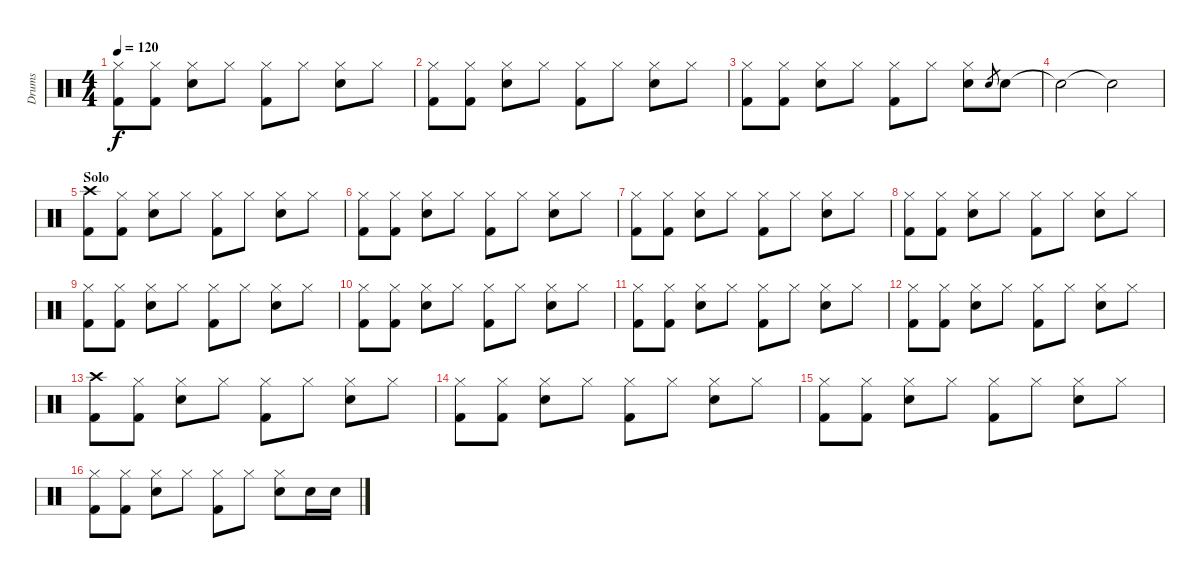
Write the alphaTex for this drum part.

\track ("Drums" "Drums") {instrument percussion}
\staff {score}
\articulation defaults
\ts (4 4)
\tempo 120
\clef neutral
\ks c
("Hi-Hat (closed)" "Kick (hit) 2").8{dy f} ("Hi-Hat (closed)" "Kick (hit) 2").8 ("Hi-Hat (closed)" "Electric Snare (hit)").8 "Hi-Hat (closed)".8 ("Hi-Hat (closed)" "Kick (hit) 2").8 "Hi-Hat (closed)".8 ("Hi-Hat (closed)" "Electric Snare (hit)").8 "Hi-Hat (closed)".8 |
("Hi-Hat (closed)" "Kick (hit) 2").8 ("Hi-Hat (closed)" "Kick (hit) 2").8 ("Hi-Hat (closed)" "Electric Snare (hit)").8 "Hi-Hat (closed)".8 ("Hi-Hat (closed)" "Kick (hit) 2").8 "Hi-Hat (closed)".8 ("Hi-Hat (closed)" "Electric Snare (hit)").8 "Hi-Hat (closed)".8 |
("Hi-Hat (closed)" "Kick (hit) 2").8 ("Hi-Hat (closed)" "Kick (hit) 2").8 ("Hi-Hat (closed)" "Electric Snare (hit)").8 "Hi-Hat (closed)".8 ("Hi-Hat (closed)" "Kick (hit) 2").8 "Hi-Hat (closed)".8 ("Hi-Hat (closed)" "Electric Snare (hit)").8 "Electric Snare (hit)".8{gr} "Electric Snare (hit)".8 |
"Electric Snare (hit)"{t}.2 "Snare (hit)"{t}.2 |
\section ("" "Solo")
("Crash high (hit)" "Kick (hit) 2").8 ("Hi-Hat (closed)" "Kick (hit) 2").8 ("Hi-Hat (closed)" "Electric Snare (hit)").8 "Hi-Hat (closed)".8 ("Hi-Hat (closed)" "Kick (hit) 2").8 "Hi-Hat (closed)".8 ("Hi-Hat (closed)" "Electric Snare (hit)").8 "Hi-Hat (closed)".8 |
("Hi-Hat (closed)" "Kick (hit) 2").8 ("Hi-Hat (closed)" "Kick (hit) 2").8 ("Hi-Hat (closed)" "Electric Snare (hit)").8 "Hi-Hat (closed)".8 ("Hi-Hat (closed)" "Kick (hit) 2").8 "Hi-Hat (closed)".8 ("Hi-Hat (closed)" "Electric Snare (hit)").8 "Hi-Hat (closed)".8 |
("Hi-Hat (closed)" "Kick (hit) 2").8 ("Hi-Hat (closed)" "Kick (hit) 2").8 ("Hi-Hat (closed)" "Electric Snare (hit)").8 "Hi-Hat (closed)".8 ("Hi-Hat (closed)" "Kick (hit) 2").8 "Hi-Hat (closed)".8 ("Hi-Hat (closed)" "Electric Snare (hit)").8 "Hi-Hat (closed)".8 |
("Hi-Hat (closed)" "Kick (hit) 2").8 ("Hi-Hat (closed)" "Kick (hit) 2").8 ("Hi-Hat (closed)" "Electric Snare (hit)").8 "Hi-Hat (closed)".8 ("Hi-Hat (closed)" "Kick (hit) 2").8 "Hi-Hat (closed)".8 ("Hi-Hat (closed)" "Electric Snare (hit)").8 "Hi-Hat (closed)".8 |
("Hi-Hat (closed)" "Kick (hit) 2").8 ("Hi-Hat (closed)" "Kick (hit) 2").8 ("Hi-Hat (closed)" "Electric Snare (hit)").8 "Hi-Hat (closed)".8 ("Hi-Hat (closed)" "Kick (hit) 2").8 "Hi-Hat (closed)".8 ("Hi-Hat (closed)" "Electric Snare (hit)").8 "Hi-Hat (closed)".8 |
("Hi-Hat (closed)" "Kick (hit) 2").8 ("Hi-Hat (closed)" "Kick (hit) 2").8 ("Hi-Hat (closed)" "Electric Snare (hit)").8 "Hi-Hat (closed)".8 ("Hi-Hat (closed)" "Kick (hit) 2").8 "Hi-Hat (closed)".8 ("Hi-Hat (closed)" "Electric Snare (hit)").8 "Hi-Hat (closed)".8 |
("Hi-Hat (closed)" "Kick (hit) 2").8 ("Hi-Hat (closed)" "Kick (hit) 2").8 ("Hi-Hat (closed)" "Electric Snare (hit)").8 "Hi-Hat (closed)".8 ("Hi-Hat (closed)" "Kick (hit) 2").8 "Hi-Hat (closed)".8 ("Hi-Hat (closed)" "Electric Snare (hit)").8 "Hi-Hat (closed)".8 |
("Hi-Hat (closed)" "Kick (hit) 2").8 ("Hi-Hat (closed)" "Kick (hit) 2").8 ("Hi-Hat (closed)" "Electric Snare (hit)").8 "Hi-Hat (closed)".8 ("Hi-Hat (closed)" "Kick (hit) 2").8 "Hi-Hat (closed)".8 ("Hi-Hat (closed)" "Electric Snare (hit)").8 "Hi-Hat (closed)".8 |
("Crash high (hit)" "Kick (hit) 2").8 ("Hi-Hat (closed)" "Kick (hit) 2").8 ("Hi-Hat (closed)" "Electric Snare (hit)").8 "Hi-Hat (closed)".8 ("Hi-Hat (closed)" "Kick (hit) 2").8 "Hi-Hat (closed)".8 ("Hi-Hat (closed)" "Electric Snare (hit)").8 "Hi-Hat (closed)".8 |
("Hi-Hat (closed)" "Kick (hit) 2").8 ("Hi-Hat (closed)" "Kick (hit) 2").8 ("Hi-Hat (closed)" "Electric Snare (hit)").8 "Hi-Hat (closed)".8 ("Hi-Hat (closed)" "Kick (hit) 2").8 "Hi-Hat (closed)".8 ("Hi-Hat (closed)" "Electric Snare (hit)").8 "Hi-Hat (closed)".8 |
("Hi-Hat (closed)" "Kick (hit) 2").8 ("Hi-Hat (closed)" "Kick (hit) 2").8 ("Hi-Hat (closed)" "Electric Snare (hit)").8 "Hi-Hat (closed)".8 ("Hi-Hat (closed)" "Kick (hit) 2").8 "Hi-Hat (closed)".8 ("Hi-Hat (closed)" "Electric Snare (hit)").8 "Hi-Hat (closed)".8 |
("Hi-Hat (closed)" "Kick (hit) 2").8 ("Hi-Hat (closed)" "Kick (hit) 2").8 ("Hi-Hat (closed)" "Electric Snare (hit)").8 "Hi-Hat (closed)".8 ("Hi-Hat (closed)" "Kick (hit) 2").8 "Hi-Hat (closed)".8 ("Hi-Hat (closed)" "Electric Snare (hit)").8 "Electric Snare (hit)".16 "Electric Snare (hit)".16
